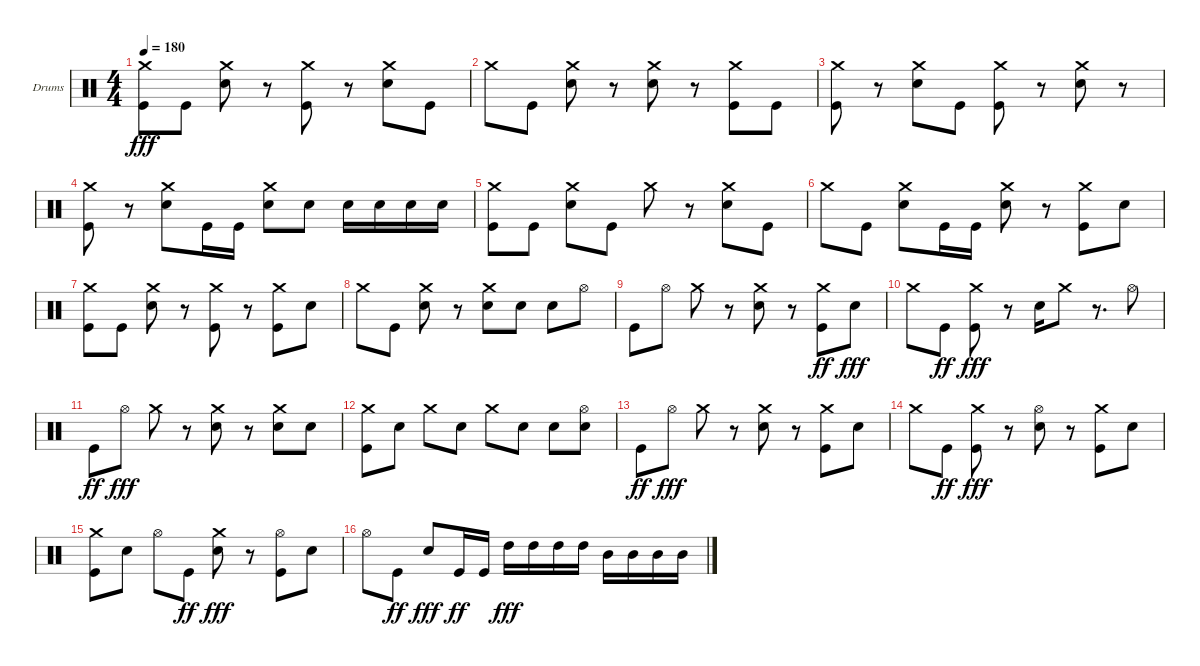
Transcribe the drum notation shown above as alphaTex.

\bracketExtendMode groupsimilarinstruments
\firstSystemTrackNameOrientation horizontal
\otherSystemsTrackNameOrientation horizontal
\track ("Drumkit" "Drums") {instrument percussion}
\staff {score}
\articulation defaults
\ts (4 4)
\tempo 180
\clef neutral
\ks c
("Crash medium (hit)" "Kick (hit)").8{dy fff} "Kick (hit)".8 ("Crash medium (hit)" "Snare (hit) 2").8 r.8 ("Crash medium (hit)" "Kick (hit)").8 r.8 ("Crash medium (hit)" "Snare (hit) 2").8 "Kick (hit)".8 |
"Crash medium (hit)".8 "Kick (hit)".8 ("Crash medium (hit)" "Snare (hit) 2").8 r.8 ("Crash medium (hit)" "Snare (hit) 2").8 r.8 ("Kick (hit)" "Crash medium (hit)").8 "Kick (hit)".8 |
("Kick (hit)" "Crash medium (hit)").8 r.8 ("Snare (hit) 2" "Crash medium (hit)").8 "Kick (hit)".8 ("Kick (hit)" "Crash medium (hit)").8 r.8 ("Snare (hit) 2" "Crash medium (hit)").8 r.8 |
("Crash medium (hit)" "Kick (hit)").8 r.8 ("Crash medium (hit)" "Snare (hit) 2").8 "Kick (hit)".16 "Kick (hit)".16 ("Snare (hit) 2" "Crash medium (hit)").8 "Snare (hit) 2".8 "Snare (hit) 2".16 "Snare (hit) 2".16 "Snare (hit) 2".16 "Snare (hit) 2".16 |
("Crash medium (hit)" "Kick (hit)").8 "Kick (hit)".8 ("Crash medium (hit)" "Snare (hit) 2").8 "Kick (hit)".8 "Crash medium (hit)".8 r.8 ("Crash medium (hit)" "Snare (hit) 2").8 "Kick (hit)".8 |
"Crash medium (hit)".8 "Kick (hit)".8 ("Crash medium (hit)" "Snare (hit) 2").8 "Kick (hit)".16 "Kick (hit)".16 ("Crash medium (hit)" "Snare (hit) 2").8 r.8 ("Crash medium (hit)" "Kick (hit)").8 "Snare (hit) 2".8 |
("Crash medium (hit)" "Kick (hit)").8 "Kick (hit)".8 ("Crash medium (hit)" "Snare (hit) 2").8 r.8 ("Crash medium (hit)" "Kick (hit)").8 r.8 ("Kick (hit)" "Crash medium (hit)").8 "Snare (hit) 2".8 |
"Crash medium (hit)".8 "Kick (hit)".8 ("Crash medium (hit)" "Snare (hit) 2").8 r.8 ("Crash medium (hit)" "Snare (hit) 2").8 "Snare (hit) 2".8 "Snare (hit) 2".8 "Hi-Hat (open)".8 |
"Kick (hit)".8 "Hi-Hat (open)".8 "Crash medium (hit)".8 r.8 ("Crash medium (hit)" "Snare (hit) 2").8 r.8 ("Kick (hit)" "Crash medium (hit)").8{dy ff} "Snare (hit) 2".8{dy fff} |
"Crash medium (hit)".8 "Kick (hit)".8{dy ff} ("Crash medium (hit)" "Kick (hit)").8{dy fff} r.8 "Snare (hit) 2".16 "Crash medium (hit)".8 r.8{d} "Hi-Hat (open)".8 |
"Kick (hit)".8{dy ff} "Hi-Hat (open)".8{dy fff} "Crash medium (hit)".8 r.8 ("Crash medium (hit)" "Snare (hit) 2").8 r.8 ("Crash medium (hit)" "Snare (hit) 2").8 "Snare (hit) 2".8 |
("Crash medium (hit)" "Kick (hit)").8 "Snare (hit) 2".8 "Crash medium (hit)".8 "Snare (hit) 2".8 "Crash medium (hit)".8 "Snare (hit) 2".8 "Snare (hit) 2".8 ("Snare (hit) 2" "Hi-Hat (open)").8 |
"Kick (hit)".8{dy ff} "Hi-Hat (open)".8{dy fff} "Crash medium (hit)".8 r.8 ("Crash medium (hit)" "Snare (hit) 2").8 r.8 ("Crash medium (hit)" "Kick (hit)").8 "Snare (hit) 2".8 |
"Crash medium (hit)".8 "Kick (hit)".8{dy ff} ("Crash medium (hit)" "Kick (hit)").8{dy fff} r.8 ("Hi-Hat (open)" "Snare (hit) 2").8 r.8 ("Crash medium (hit)" "Kick (hit)").8 "Snare (hit) 2".8 |
("Crash medium (hit)" "Kick (hit)").8 "Snare (hit) 2".8 "Hi-Hat (open)".8 "Kick (hit)".8{dy ff} ("Crash medium (hit)" "Snare (hit) 2").8{dy fff} r.8 ("Hi-Hat (open)" "Kick (hit)").8 "Snare (hit) 2".8 |
"Hi-Hat (open)".8 "Kick (hit)".8{dy ff} "Snare (hit) 2".8{dy fff} "Kick (hit)".16{dy ff} "Kick (hit)".16 "High Tom (hit)".16{dy fff} "High Tom (hit)".16 "High Tom (hit)".16 "High Tom (hit)".16 "Mid Tom (hit)".16 "Mid Tom (hit)".16 "Mid Tom (hit)".16 "Mid Tom (hit)".16
